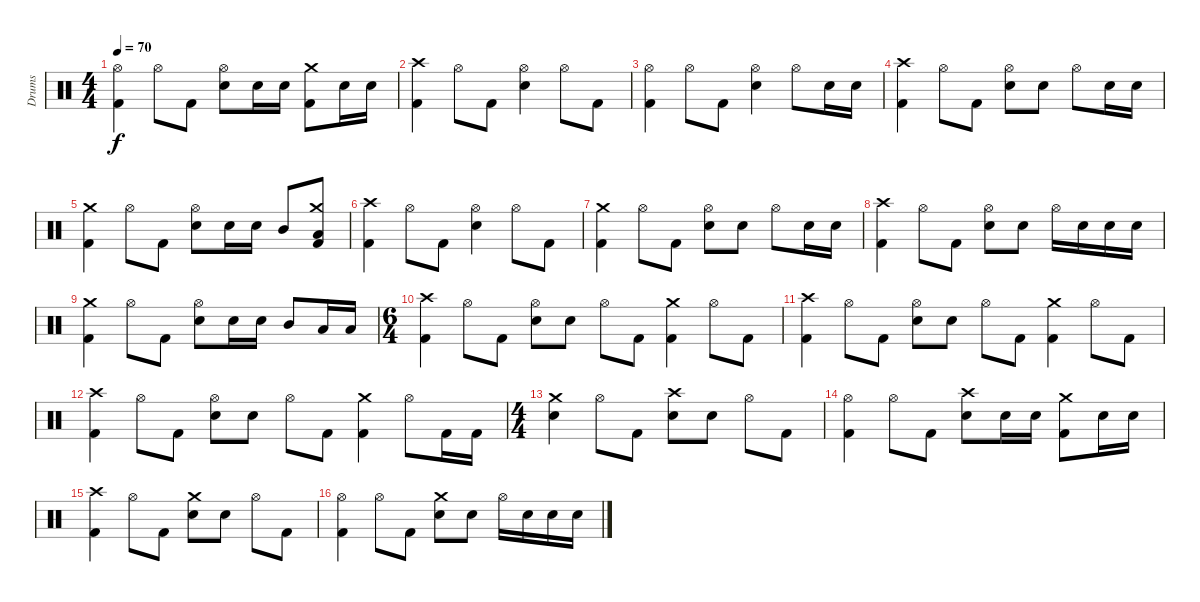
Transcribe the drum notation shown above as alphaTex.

\track ("Drums" "Drums") {instrument percussion}
\staff {score}
\articulation defaults
\ts (4 4)
\tempo 70
\clef neutral
\ks c
("Hi-Hat (open)" "Kick (hit) 2").4{dy f} "Hi-Hat (open)".8 "Kick (hit) 2".8 ("Hi-Hat (open)" "Electric Snare (hit)").8 "Electric Snare (hit)".16 "Electric Snare (hit)".16 ("Crash medium (hit)" "Kick (hit) 2").8 "Electric Snare (hit)".16 "Electric Snare (hit)".16 |
("Crash high (hit)" "Kick (hit) 2").4 "Hi-Hat (open)".8 "Kick (hit) 2".8 ("Hi-Hat (open)" "Electric Snare (hit)").4 "Hi-Hat (open)".8 "Kick (hit) 2".8 |
("Hi-Hat (open)" "Kick (hit) 2").4 "Hi-Hat (open)".8 "Kick (hit) 2".8 ("Hi-Hat (open)" "Electric Snare (hit)").4 "Hi-Hat (open)".8 "Electric Snare (hit)".16 "Electric Snare (hit)".16 |
("Crash high (hit)" "Kick (hit) 2").4 "Hi-Hat (open)".8 "Kick (hit) 2".8 ("Hi-Hat (open)" "Electric Snare (hit)").8 "Electric Snare (hit)".8 "Hi-Hat (open)".8 "Electric Snare (hit)".16 "Electric Snare (hit)".16 |
("Crash medium (hit)" "Kick (hit) 2").4 "Hi-Hat (open)".8 "Kick (hit) 2".8 ("Hi-Hat (open)" "Electric Snare (hit)").8 "Electric Snare (hit)".16 "Electric Snare (hit)".16 "Mid Tom (hit)".8 ("Crash medium (hit)" "Low Tom (hit)" "Kick (hit) 2").8 |
("Crash high (hit)" "Kick (hit) 2").4 "Hi-Hat (open)".8 "Kick (hit) 2".8 ("Hi-Hat (open)" "Electric Snare (hit)").4 "Hi-Hat (open)".8 "Kick (hit) 2".8 |
("Crash medium (hit)" "Kick (hit) 2").4 "Hi-Hat (open)".8 "Kick (hit) 2".8 ("Hi-Hat (open)" "Electric Snare (hit)").8 "Electric Snare (hit)".8 "Hi-Hat (open)".8 "Electric Snare (hit)".16 "Electric Snare (hit)".16 |
("Crash high (hit)" "Kick (hit) 2").4 "Hi-Hat (open)".8 "Kick (hit) 2".8 ("Hi-Hat (open)" "Electric Snare (hit)").8 "Electric Snare (hit)".8 "Hi-Hat (open)".16 "Electric Snare (hit)".16 "Electric Snare (hit)".16 "Electric Snare (hit)".16 |
("Crash medium (hit)" "Kick (hit) 2").4 "Hi-Hat (open)".8 "Kick (hit) 2".8 ("Hi-Hat (open)" "Electric Snare (hit)").8 "Electric Snare (hit)".16 "Electric Snare (hit)".16 "Mid Tom (hit)".8 "Low Tom (hit)".16 "Low Tom (hit)".16 |
\ts (6 4)
("Crash high (hit)" "Kick (hit) 2").4 "Hi-Hat (open)".8 "Kick (hit) 2".8 ("Hi-Hat (open)" "Electric Snare (hit)").8 "Electric Snare (hit)".8 "Hi-Hat (open)".8 "Kick (hit) 2".8 ("Crash medium (hit)" "Kick (hit) 2").4 "Hi-Hat (open)".8 "Kick (hit) 2".8 |
("Crash high (hit)" "Kick (hit) 2").4 "Hi-Hat (open)".8 "Kick (hit) 2".8 ("Hi-Hat (open)" "Electric Snare (hit)").8 "Electric Snare (hit)".8 "Hi-Hat (open)".8 "Kick (hit) 2".8 ("Crash medium (hit)" "Kick (hit) 2").4 "Hi-Hat (open)".8 "Kick (hit) 2".8 |
("Crash high (hit)" "Kick (hit) 2").4 "Hi-Hat (open)".8 "Kick (hit) 2".8 ("Hi-Hat (open)" "Electric Snare (hit)").8 "Electric Snare (hit)".8 "Hi-Hat (open)".8 "Kick (hit) 2".8 ("Crash medium (hit)" "Kick (hit) 2").4 "Hi-Hat (open)".8 "Kick (hit) 2".16 "Kick (hit) 2".16 |
\ts (4 4)
("Crash medium (hit)" "Electric Snare (hit)").4 "Hi-Hat (open)".8 "Kick (hit) 2".8 ("Crash high (hit)" "Electric Snare (hit)").8 "Electric Snare (hit)".8 "Hi-Hat (open)".8 "Kick (hit) 2".8 |
("Hi-Hat (open)" "Kick (hit) 2").4 "Hi-Hat (open)".8 "Kick (hit) 2".8 ("Crash high (hit)" "Electric Snare (hit)").8 "Electric Snare (hit)".16 "Electric Snare (hit)".16 ("Crash medium (hit)" "Kick (hit) 2").8 "Electric Snare (hit)".16 "Electric Snare (hit)".16 |
("Crash high (hit)" "Kick (hit) 2").4 "Hi-Hat (open)".8 "Kick (hit) 2".8 ("Crash medium (hit)" "Electric Snare (hit)").8 "Electric Snare (hit)".8 "Hi-Hat (open)".8 "Kick (hit) 2".8 |
("Hi-Hat (open)" "Kick (hit) 2").4 "Hi-Hat (open)".8 "Kick (hit) 2".8 ("Crash medium (hit)" "Electric Snare (hit)").8 "Electric Snare (hit)".8 "Hi-Hat (open)".16 "Electric Snare (hit)".16 "Electric Snare (hit)".16 "Electric Snare (hit)".16
